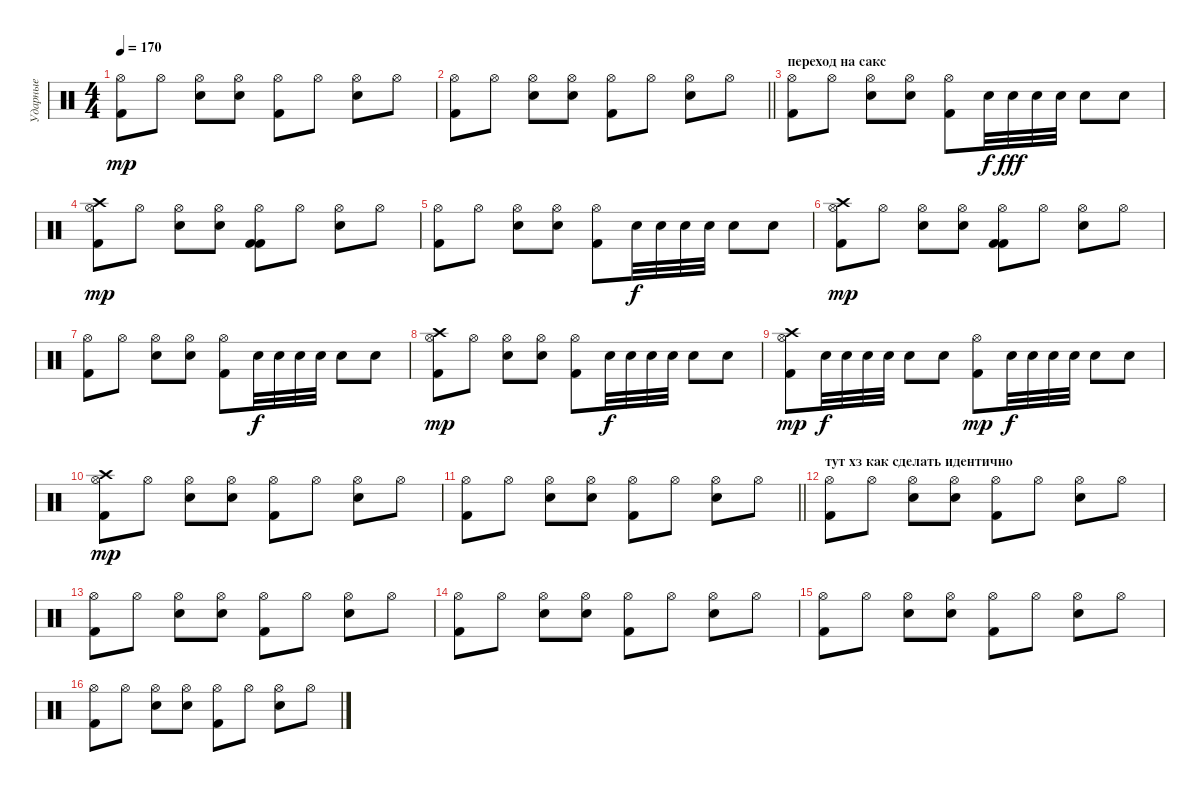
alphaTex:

\track ("Ударные" "Ударные") {instrument percussion}
\staff {score}
\articulation defaults
\ts (4 4)
\tempo 170
\clef neutral
\ks c
("Hi-Hat (open)" "Kick (hit) 2").8{dy mp} "Hi-Hat (open)".8 ("Hi-Hat (open)" "Electric Snare (hit)").8 ("Hi-Hat (open)" "Electric Snare (hit)").8 ("Hi-Hat (open)" "Kick (hit) 2").8 "Hi-Hat (open)".8 ("Hi-Hat (open)" "Electric Snare (hit)").8 "Hi-Hat (open)".8 |
\barLineRight lightlight
("Hi-Hat (open)" "Kick (hit) 2").8 "Hi-Hat (open)".8 ("Hi-Hat (open)" "Electric Snare (hit)").8 ("Hi-Hat (open)" "Electric Snare (hit)").8 ("Hi-Hat (open)" "Kick (hit) 2").8 "Hi-Hat (open)".8 ("Hi-Hat (open)" "Electric Snare (hit)").8 "Hi-Hat (open)".8 |
\section ("" "переход на сакс")
("Hi-Hat (open)" "Kick (hit) 2").8 "Hi-Hat (open)".8 ("Hi-Hat (open)" "Electric Snare (hit)").8 ("Hi-Hat (open)" "Electric Snare (hit)").8 ("Hi-Hat (open)" "Kick (hit) 2").8 "Electric Snare (hit)".32{dy f} "Electric Snare (hit)".32{dy fff} "Electric Snare (hit)".32 "Electric Snare (hit)".32 "Electric Snare (hit)".8 "Electric Snare (hit)".8 |
("Crash high (hit)" "Hi-Hat (open)" "Kick (hit) 2").8{dy mp} "Hi-Hat (open)".8 ("Hi-Hat (open)" "Electric Snare (hit)").8 ("Hi-Hat (open)" "Electric Snare (hit)").8 ("Hi-Hat (open)" "Kick (hit) 2" "Kick (hit) 2").8 "Hi-Hat (open)".8 ("Hi-Hat (open)" "Electric Snare (hit)").8 "Hi-Hat (open)".8 |
("Hi-Hat (open)" "Kick (hit) 2").8 "Hi-Hat (open)".8 ("Hi-Hat (open)" "Electric Snare (hit)").8 ("Hi-Hat (open)" "Electric Snare (hit)").8 ("Hi-Hat (open)" "Kick (hit) 2").8 "Electric Snare (hit)".32{dy f} "Electric Snare (hit)".32 "Electric Snare (hit)".32 "Electric Snare (hit)".32 "Electric Snare (hit)".8 "Electric Snare (hit)".8 |
("Crash high (hit)" "Hi-Hat (open)" "Kick (hit) 2").8{dy mp} "Hi-Hat (open)".8 ("Hi-Hat (open)" "Electric Snare (hit)").8 ("Hi-Hat (open)" "Electric Snare (hit)").8 ("Hi-Hat (open)" "Kick (hit) 2" "Kick (hit) 2").8 "Hi-Hat (open)".8 ("Hi-Hat (open)" "Electric Snare (hit)").8 "Hi-Hat (open)".8 |
("Hi-Hat (open)" "Kick (hit) 2").8 "Hi-Hat (open)".8 ("Hi-Hat (open)" "Electric Snare (hit)").8 ("Hi-Hat (open)" "Electric Snare (hit)").8 ("Hi-Hat (open)" "Kick (hit) 2").8 "Electric Snare (hit)".32{dy f} "Electric Snare (hit)".32 "Electric Snare (hit)".32 "Electric Snare (hit)".32 "Electric Snare (hit)".8 "Electric Snare (hit)".8 |
("Crash high (hit)" "Hi-Hat (open)" "Kick (hit) 2").8{dy mp} "Hi-Hat (open)".8 ("Hi-Hat (open)" "Electric Snare (hit)").8 ("Hi-Hat (open)" "Electric Snare (hit)").8 ("Hi-Hat (open)" "Kick (hit) 2").8 "Electric Snare (hit)".32{dy f} "Electric Snare (hit)".32 "Electric Snare (hit)".32 "Electric Snare (hit)".32 "Electric Snare (hit)".8 "Electric Snare (hit)".8 |
("Crash high (hit)" "Hi-Hat (open)" "Kick (hit) 2").8{dy mp} "Electric Snare (hit)".32{dy f} "Electric Snare (hit)".32 "Electric Snare (hit)".32 "Electric Snare (hit)".32 "Electric Snare (hit)".8 "Electric Snare (hit)".8 ("Hi-Hat (open)" "Kick (hit) 2").8{dy mp} "Electric Snare (hit)".32{dy f} "Electric Snare (hit)".32 "Electric Snare (hit)".32 "Electric Snare (hit)".32 "Electric Snare (hit)".8 "Electric Snare (hit)".8 |
("Crash high (hit)" "Hi-Hat (open)" "Kick (hit) 2").8{dy mp} "Hi-Hat (open)".8 ("Hi-Hat (open)" "Electric Snare (hit)").8 ("Hi-Hat (open)" "Electric Snare (hit)").8 ("Hi-Hat (open)" "Kick (hit) 2").8 "Hi-Hat (open)".8 ("Hi-Hat (open)" "Electric Snare (hit)").8 "Hi-Hat (open)".8 |
\barLineRight lightlight
("Hi-Hat (open)" "Kick (hit) 2").8 "Hi-Hat (open)".8 ("Hi-Hat (open)" "Electric Snare (hit)").8 ("Hi-Hat (open)" "Electric Snare (hit)").8 ("Hi-Hat (open)" "Kick (hit) 2").8 "Hi-Hat (open)".8 ("Hi-Hat (open)" "Electric Snare (hit)").8 "Hi-Hat (open)".8 |
\section ("" "тут хз как сделать идентично")
("Hi-Hat (open)" "Kick (hit) 2").8 "Hi-Hat (open)".8 ("Hi-Hat (open)" "Electric Snare (hit)").8 ("Hi-Hat (open)" "Electric Snare (hit)").8 ("Hi-Hat (open)" "Kick (hit) 2").8 "Hi-Hat (open)".8 ("Hi-Hat (open)" "Electric Snare (hit)").8 "Hi-Hat (open)".8 |
("Hi-Hat (open)" "Kick (hit) 2").8 "Hi-Hat (open)".8 ("Hi-Hat (open)" "Electric Snare (hit)").8 ("Hi-Hat (open)" "Electric Snare (hit)").8 ("Hi-Hat (open)" "Kick (hit) 2").8 "Hi-Hat (open)".8 ("Hi-Hat (open)" "Electric Snare (hit)").8 "Hi-Hat (open)".8 |
("Hi-Hat (open)" "Kick (hit) 2").8 "Hi-Hat (open)".8 ("Hi-Hat (open)" "Electric Snare (hit)").8 ("Hi-Hat (open)" "Electric Snare (hit)").8 ("Hi-Hat (open)" "Kick (hit) 2").8 "Hi-Hat (open)".8 ("Hi-Hat (open)" "Electric Snare (hit)").8 "Hi-Hat (open)".8 |
("Hi-Hat (open)" "Kick (hit) 2").8 "Hi-Hat (open)".8 ("Hi-Hat (open)" "Electric Snare (hit)").8 ("Hi-Hat (open)" "Electric Snare (hit)").8 ("Hi-Hat (open)" "Kick (hit) 2").8 "Hi-Hat (open)".8 ("Hi-Hat (open)" "Electric Snare (hit)").8 "Hi-Hat (open)".8 |
("Hi-Hat (open)" "Kick (hit) 2").8 "Hi-Hat (open)".8 ("Hi-Hat (open)" "Electric Snare (hit)").8 ("Hi-Hat (open)" "Electric Snare (hit)").8 ("Hi-Hat (open)" "Kick (hit) 2").8 "Hi-Hat (open)".8 ("Hi-Hat (open)" "Electric Snare (hit)").8 "Hi-Hat (open)".8
